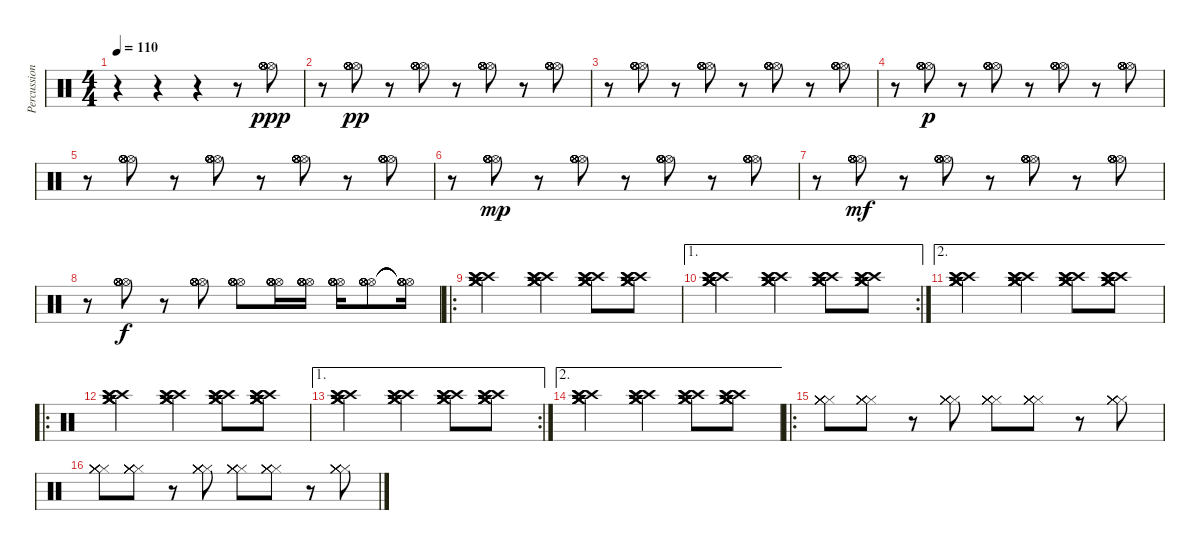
\track ("Percussion 2" "Percussion") {instrument percussion}
\staff {score}
\articulation defaults
\ts (4 4)
\tempo 110
\clef neutral
\ks c
r.4{dy ppp} r.4 r.4 r.8 ("Hi-Hat (open)" "Hi-Hat (open)" "Hi-Hat (open)" "Hi-Hat (open)" "Hi-Hat (open)" "Hi-Hat (open)").8 |
r.8 ("Hi-Hat (open)" "Hi-Hat (open)" "Hi-Hat (open)" "Hi-Hat (open)" "Hi-Hat (open)" "Hi-Hat (open)").8{dy pp} r.8 ("Hi-Hat (open)" "Hi-Hat (open)" "Hi-Hat (open)" "Hi-Hat (open)" "Hi-Hat (open)" "Hi-Hat (open)").8 r.8 ("Hi-Hat (open)" "Hi-Hat (open)" "Hi-Hat (open)" "Hi-Hat (open)" "Hi-Hat (open)" "Hi-Hat (open)").8 r.8 ("Hi-Hat (open)" "Hi-Hat (open)" "Hi-Hat (open)" "Hi-Hat (open)" "Hi-Hat (open)" "Hi-Hat (open)").8 |
r.8 ("Hi-Hat (open)" "Hi-Hat (open)" "Hi-Hat (open)" "Hi-Hat (open)" "Hi-Hat (open)" "Hi-Hat (open)").8 r.8 ("Hi-Hat (open)" "Hi-Hat (open)" "Hi-Hat (open)" "Hi-Hat (open)" "Hi-Hat (open)" "Hi-Hat (open)").8 r.8 ("Hi-Hat (open)" "Hi-Hat (open)" "Hi-Hat (open)" "Hi-Hat (open)" "Hi-Hat (open)" "Hi-Hat (open)").8 r.8 ("Hi-Hat (open)" "Hi-Hat (open)" "Hi-Hat (open)" "Hi-Hat (open)" "Hi-Hat (open)" "Hi-Hat (open)").8 |
r.8 ("Hi-Hat (open)" "Hi-Hat (open)" "Hi-Hat (open)" "Hi-Hat (open)" "Hi-Hat (open)" "Hi-Hat (open)").8{dy p} r.8 ("Hi-Hat (open)" "Hi-Hat (open)" "Hi-Hat (open)" "Hi-Hat (open)" "Hi-Hat (open)" "Hi-Hat (open)").8 r.8 ("Hi-Hat (open)" "Hi-Hat (open)" "Hi-Hat (open)" "Hi-Hat (open)" "Hi-Hat (open)" "Hi-Hat (open)").8 r.8 ("Hi-Hat (open)" "Hi-Hat (open)" "Hi-Hat (open)" "Hi-Hat (open)" "Hi-Hat (open)" "Hi-Hat (open)").8 |
r.8 ("Hi-Hat (open)" "Hi-Hat (open)" "Hi-Hat (open)" "Hi-Hat (open)" "Hi-Hat (open)" "Hi-Hat (open)").8 r.8 ("Hi-Hat (open)" "Hi-Hat (open)" "Hi-Hat (open)" "Hi-Hat (open)" "Hi-Hat (open)" "Hi-Hat (open)").8 r.8 ("Hi-Hat (open)" "Hi-Hat (open)" "Hi-Hat (open)" "Hi-Hat (open)" "Hi-Hat (open)" "Hi-Hat (open)").8 r.8 ("Hi-Hat (open)" "Hi-Hat (open)" "Hi-Hat (open)" "Hi-Hat (open)" "Hi-Hat (open)" "Hi-Hat (open)").8 |
r.8 ("Hi-Hat (open)" "Hi-Hat (open)" "Hi-Hat (open)" "Hi-Hat (open)" "Hi-Hat (open)" "Hi-Hat (open)").8{dy mp} r.8 ("Hi-Hat (open)" "Hi-Hat (open)" "Hi-Hat (open)" "Hi-Hat (open)" "Hi-Hat (open)" "Hi-Hat (open)").8 r.8 ("Hi-Hat (open)" "Hi-Hat (open)" "Hi-Hat (open)" "Hi-Hat (open)" "Hi-Hat (open)" "Hi-Hat (open)").8 r.8 ("Hi-Hat (open)" "Hi-Hat (open)" "Hi-Hat (open)" "Hi-Hat (open)" "Hi-Hat (open)" "Hi-Hat (open)").8 |
r.8 ("Hi-Hat (open)" "Hi-Hat (open)" "Hi-Hat (open)" "Hi-Hat (open)" "Hi-Hat (open)" "Hi-Hat (open)").8{dy mf} r.8 ("Hi-Hat (open)" "Hi-Hat (open)" "Hi-Hat (open)" "Hi-Hat (open)" "Hi-Hat (open)" "Hi-Hat (open)").8 r.8 ("Hi-Hat (open)" "Hi-Hat (open)" "Hi-Hat (open)" "Hi-Hat (open)" "Hi-Hat (open)" "Hi-Hat (open)").8 r.8 ("Hi-Hat (open)" "Hi-Hat (open)" "Hi-Hat (open)" "Hi-Hat (open)" "Hi-Hat (open)" "Hi-Hat (open)").8 |
r.8 ("Hi-Hat (open)" "Hi-Hat (open)" "Hi-Hat (open)" "Hi-Hat (open)" "Hi-Hat (open)" "Hi-Hat (open)").8{dy f} r.8 ("Hi-Hat (open)" "Hi-Hat (open)" "Hi-Hat (open)" "Hi-Hat (open)" "Hi-Hat (open)" "Hi-Hat (open)").8 ("Hi-Hat (open)" "Hi-Hat (open)" "Hi-Hat (open)" "Hi-Hat (open)" "Hi-Hat (open)" "Hi-Hat (open)").8 ("Hi-Hat (open)" "Hi-Hat (open)" "Hi-Hat (open)" "Hi-Hat (open)" "Hi-Hat (open)" "Hi-Hat (open)").16 ("Hi-Hat (open)" "Hi-Hat (open)" "Hi-Hat (open)" "Hi-Hat (open)" "Hi-Hat (open)" "Hi-Hat (open)").16 ("Hi-Hat (open)" "Hi-Hat (open)" "Hi-Hat (open)" "Hi-Hat (open)" "Hi-Hat (open)" "Hi-Hat (open)").16 ("Hi-Hat (open)" "Hi-Hat (open)" "Hi-Hat (open)" "Hi-Hat (open)" "Hi-Hat (open)" "Hi-Hat (open)").8 ("Hi-Hat (open)"{t} "Hi-Hat (open)"{t} "Hi-Hat (open)"{t} "Hi-Hat (open)"{t} "Hi-Hat (open)"{t} "Hi-Hat (open)"{t}).16 |
\ro
("Crash medium (hit)" "Crash medium (hit)" "Crash medium (hit)" "Crash high (hit)" "Crash high (hit)" "Crash high (hit)").2 ("Crash medium (hit)" "Crash medium (hit)" "Crash medium (hit)" "Crash high (hit)" "Crash high (hit)" "Crash high (hit)").4 ("Crash medium (hit)" "Crash medium (hit)" "Crash medium (hit)" "Crash high (hit)" "Crash high (hit)" "Crash high (hit)").8 ("Crash medium (hit)" "Crash medium (hit)" "Crash medium (hit)" "Crash high (hit)" "Crash high (hit)" "Crash high (hit)").8 |
\ae 1
\rc 2
("Crash medium (hit)" "Crash medium (hit)" "Crash medium (hit)" "Crash high (hit)" "Crash high (hit)" "Crash high (hit)").2 ("Crash medium (hit)" "Crash medium (hit)" "Crash medium (hit)" "Crash high (hit)" "Crash high (hit)" "Crash high (hit)").4 ("Crash medium (hit)" "Crash medium (hit)" "Crash medium (hit)" "Crash high (hit)" "Crash high (hit)" "Crash high (hit)").8 ("Crash medium (hit)" "Crash medium (hit)" "Crash medium (hit)" "Crash high (hit)" "Crash high (hit)" "Crash high (hit)").8 |
\ae 2
("Crash medium (hit)" "Crash medium (hit)" "Crash medium (hit)" "Crash high (hit)" "Crash high (hit)" "Crash high (hit)").2 ("Crash medium (hit)" "Crash medium (hit)" "Crash medium (hit)" "Crash high (hit)" "Crash high (hit)" "Crash high (hit)").4 ("Crash medium (hit)" "Crash medium (hit)" "Crash medium (hit)" "Crash high (hit)" "Crash high (hit)" "Crash high (hit)").8 ("Crash medium (hit)" "Crash medium (hit)" "Crash medium (hit)" "Crash high (hit)" "Crash high (hit)" "Crash high (hit)").8 |
\ro
("Crash medium (hit)" "Crash medium (hit)" "Crash medium (hit)" "Crash high (hit)" "Crash high (hit)" "Crash high (hit)").2 ("Crash medium (hit)" "Crash medium (hit)" "Crash medium (hit)" "Crash high (hit)" "Crash high (hit)" "Crash high (hit)").4 ("Crash medium (hit)" "Crash medium (hit)" "Crash medium (hit)" "Crash high (hit)" "Crash high (hit)" "Crash high (hit)").8 ("Crash medium (hit)" "Crash medium (hit)" "Crash medium (hit)" "Crash high (hit)" "Crash high (hit)" "Crash high (hit)").8 |
\ae 1
\rc 2
("Crash medium (hit)" "Crash medium (hit)" "Crash medium (hit)" "Crash high (hit)" "Crash high (hit)" "Crash high (hit)").2 ("Crash medium (hit)" "Crash medium (hit)" "Crash medium (hit)" "Crash high (hit)" "Crash high (hit)" "Crash high (hit)").4 ("Crash medium (hit)" "Crash medium (hit)" "Crash medium (hit)" "Crash high (hit)" "Crash high (hit)" "Crash high (hit)").8 ("Crash medium (hit)" "Crash medium (hit)" "Crash medium (hit)" "Crash high (hit)" "Crash high (hit)" "Crash high (hit)").8 |
\ae 2
("Crash medium (hit)" "Crash medium (hit)" "Crash medium (hit)" "Crash high (hit)" "Crash high (hit)" "Crash high (hit)").2 ("Crash medium (hit)" "Crash medium (hit)" "Crash medium (hit)" "Crash high (hit)" "Crash high (hit)" "Crash high (hit)").4 ("Crash medium (hit)" "Crash medium (hit)" "Crash medium (hit)" "Crash high (hit)" "Crash high (hit)" "Crash high (hit)").8 ("Crash medium (hit)" "Crash medium (hit)" "Crash medium (hit)" "Crash high (hit)" "Crash high (hit)" "Crash high (hit)").8 |
\ro
("Hi-Hat (closed)" "Hi-Hat (closed)" "Hi-Hat (closed)" "Hi-Hat (closed)" "Hi-Hat (closed)" "Hi-Hat (closed)").8 ("Hi-Hat (closed)" "Hi-Hat (closed)" "Hi-Hat (closed)" "Hi-Hat (closed)" "Hi-Hat (closed)" "Hi-Hat (closed)").8 r.8 ("Hi-Hat (closed)" "Hi-Hat (closed)" "Hi-Hat (closed)" "Hi-Hat (closed)" "Hi-Hat (closed)" "Hi-Hat (closed)").8 ("Hi-Hat (closed)" "Hi-Hat (closed)" "Hi-Hat (closed)" "Hi-Hat (closed)" "Hi-Hat (closed)" "Hi-Hat (closed)").8 ("Hi-Hat (closed)" "Hi-Hat (closed)" "Hi-Hat (closed)" "Hi-Hat (closed)" "Hi-Hat (closed)" "Hi-Hat (closed)").8 r.8 ("Hi-Hat (closed)" "Hi-Hat (closed)" "Hi-Hat (closed)" "Hi-Hat (closed)" "Hi-Hat (closed)" "Hi-Hat (closed)").8 |
("Hi-Hat (closed)" "Hi-Hat (closed)" "Hi-Hat (closed)" "Hi-Hat (closed)" "Hi-Hat (closed)" "Hi-Hat (closed)").8 ("Hi-Hat (closed)" "Hi-Hat (closed)" "Hi-Hat (closed)" "Hi-Hat (closed)" "Hi-Hat (closed)" "Hi-Hat (closed)").8 r.8 ("Hi-Hat (closed)" "Hi-Hat (closed)" "Hi-Hat (closed)" "Hi-Hat (closed)" "Hi-Hat (closed)" "Hi-Hat (closed)").8 ("Hi-Hat (closed)" "Hi-Hat (closed)" "Hi-Hat (closed)" "Hi-Hat (closed)" "Hi-Hat (closed)" "Hi-Hat (closed)").8 ("Hi-Hat (closed)" "Hi-Hat (closed)" "Hi-Hat (closed)" "Hi-Hat (closed)" "Hi-Hat (closed)" "Hi-Hat (closed)").8 r.8 ("Hi-Hat (closed)" "Hi-Hat (closed)" "Hi-Hat (closed)" "Hi-Hat (closed)" "Hi-Hat (closed)" "Hi-Hat (closed)").8
